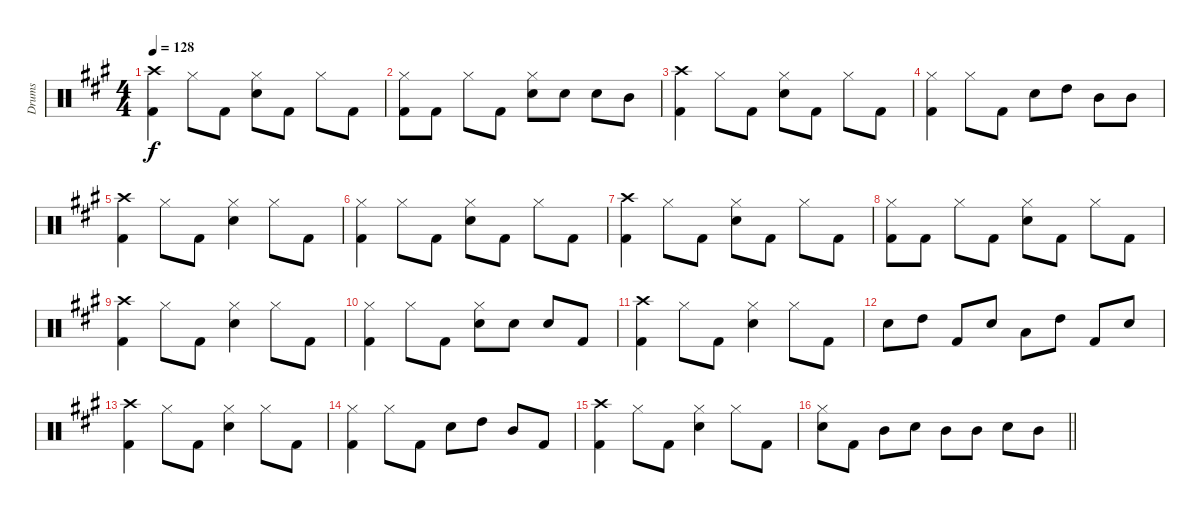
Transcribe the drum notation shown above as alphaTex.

\track ("Drums" "Drums") {instrument percussion}
\staff {score}
\articulation defaults
\ts (4 4)
\tempo 128
\clef neutral
\ks f#minor
("Crash high (hit)" "Kick (hit) 2").4{dy f} "Hi-Hat (closed)".8 "Kick (hit) 2".8 ("Hi-Hat (closed)" "Electric Snare (hit)").8 "Kick (hit) 2".8 "Hi-Hat (closed)".8 "Kick (hit) 2".8 |
("Hi-Hat (closed)" "Kick (hit) 2").8 "Kick (hit) 2".8 "Hi-Hat (closed)".8 "Kick (hit) 2".8 ("Hi-Hat (closed)" "Electric Snare (hit)").8 "Electric Snare (hit)".8 "Electric Snare (hit)".8 "Mid Tom (hit)".8 |
("Crash high (hit)" "Kick (hit) 2").4 "Hi-Hat (closed)".8 "Kick (hit) 2".8 ("Hi-Hat (closed)" "Electric Snare (hit)").8 "Kick (hit) 2".8 "Hi-Hat (closed)".8 "Kick (hit) 2".8 |
("Hi-Hat (closed)" "Kick (hit) 2").4 "Hi-Hat (closed)".8 "Kick (hit) 2".8 "Electric Snare (hit)".8 "High Tom (hit)".8 "Mid Tom (hit)".8 "Mid Tom (hit)".8 |
("Crash high (hit)" "Kick (hit) 2").4 "Hi-Hat (closed)".8 "Kick (hit) 2".8 ("Hi-Hat (closed)" "Electric Snare (hit)").4 "Hi-Hat (closed)".8 "Kick (hit) 2".8 |
("Hi-Hat (closed)" "Kick (hit) 2").4 "Hi-Hat (closed)".8 "Kick (hit) 2".8 ("Hi-Hat (closed)" "Electric Snare (hit)").8 "Kick (hit) 2".8 "Hi-Hat (closed)".8 "Kick (hit) 2".8 |
("Crash high (hit)" "Kick (hit) 2").4 "Hi-Hat (closed)".8 "Kick (hit) 2".8 ("Hi-Hat (closed)" "Electric Snare (hit)").8 "Kick (hit) 2".8 "Hi-Hat (closed)".8 "Kick (hit) 2".8 |
("Hi-Hat (closed)" "Kick (hit) 2").8 "Kick (hit) 2".8 "Hi-Hat (closed)".8 "Kick (hit) 2".8 ("Hi-Hat (closed)" "Electric Snare (hit)").8 "Kick (hit) 2".8 "Hi-Hat (closed)".8 "Kick (hit) 2".8 |
("Crash high (hit)" "Kick (hit) 2").4 "Hi-Hat (closed)".8 "Kick (hit) 2".8 ("Hi-Hat (closed)" "Electric Snare (hit)").4 "Hi-Hat (closed)".8 "Kick (hit) 2".8 |
("Hi-Hat (closed)" "Kick (hit) 2").4 "Hi-Hat (closed)".8 "Kick (hit) 2".8 ("Hi-Hat (closed)" "Electric Snare (hit)").8 "Electric Snare (hit)".8 "Electric Snare (hit)".8 "Kick (hit) 2".8 |
("Crash high (hit)" "Kick (hit) 2").4 "Hi-Hat (closed)".8 "Kick (hit) 2".8 ("Hi-Hat (closed)" "Electric Snare (hit)").4 "Hi-Hat (closed)".8 "Kick (hit) 2".8 |
"Electric Snare (hit)".8 "High Tom (hit)".8 "Kick (hit) 2".8 "Electric Snare (hit)".8 "Low Tom (hit)".8 "High Tom (hit)".8 "Kick (hit) 2".8 "Electric Snare (hit)".8 |
("Crash high (hit)" "Kick (hit) 2").4 "Hi-Hat (closed)".8 "Kick (hit) 2".8 ("Hi-Hat (closed)" "Electric Snare (hit)").4 "Hi-Hat (closed)".8 "Kick (hit) 2".8 |
("Hi-Hat (closed)" "Kick (hit) 2").4 "Hi-Hat (closed)".8 "Kick (hit) 2".8 "Electric Snare (hit)".8 "High Tom (hit)".8 "Mid Tom (hit)".8 "Kick (hit) 2".8 |
("Crash high (hit)" "Kick (hit) 2").4 "Hi-Hat (closed)".8 "Kick (hit) 2".8 ("Hi-Hat (closed)" "Electric Snare (hit)").4 "Hi-Hat (closed)".8 "Kick (hit) 2".8 |
\barLineRight lightlight
("Hi-Hat (closed)" "Electric Snare (hit)").8 "Kick (hit) 2".8 "Mid Tom (hit)".8 "Electric Snare (hit)".8 "Mid Tom (hit)".8 "Mid Tom (hit)".8 "Electric Snare (hit)".8 "Mid Tom (hit)".8
